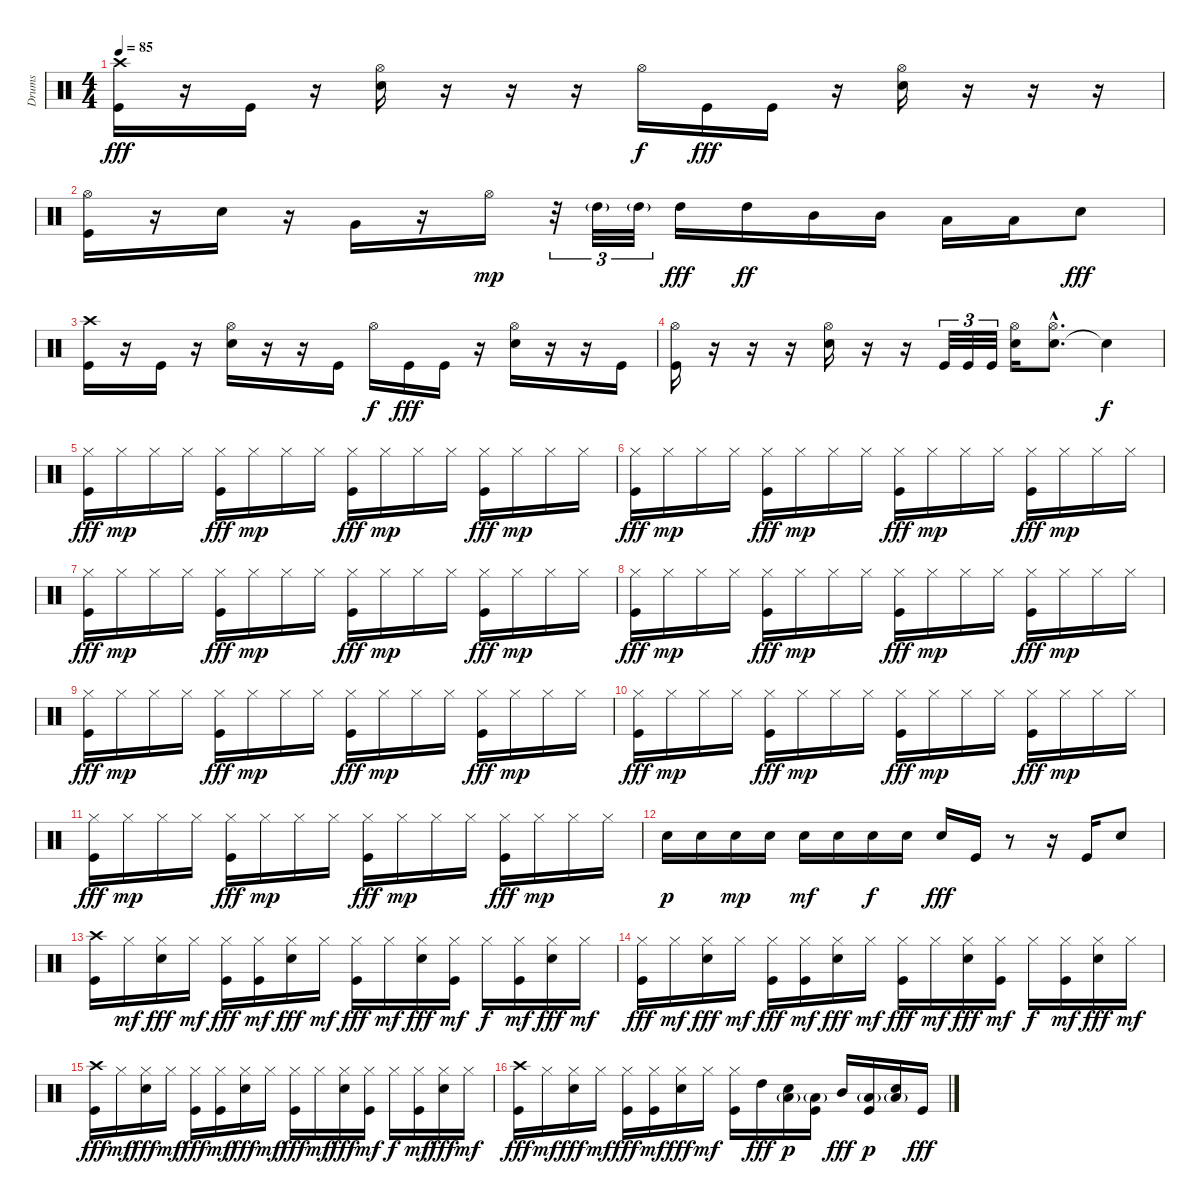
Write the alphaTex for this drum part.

\track ("Drums" "Drums") {instrument percussion}
\staff {score}
\articulation defaults
\ts (4 4)
\tempo 85
\clef neutral
\ks c
("Kick (hit)" "Crash high (hit)").16{dy fff} r.16 "Kick (hit)".16 r.16 ("Electric Snare (hit)" "Hi-Hat (open)").16 r.16 r.16 r.16 "Hi-Hat (open)".16{dy f} "Kick (hit)".16{dy fff} "Kick (hit)".16 r.16 ("Electric Snare (hit)" "Hi-Hat (open)").16 r.16 r.16 r.16 |
("Kick (hit)" "Hi-Hat (open)").16 r.16 "Electric Snare (hit)".16 r.16 "Very Low Tom (hit)".16 r.16 "Hi-Hat (open)".16{dy mp} r.32{tu (3 2)} "High Tom (hit)"{g}.32{tu (3 2)} "High Tom (hit)"{g}.32{tu (3 2)} "High Tom (hit)".16{dy fff} "High Tom (hit)".16{dy ff} "Mid Tom (hit)".16 "Mid Tom (hit)".16 "Low Tom (hit)".16 "Low Tom (hit)".16 "Electric Snare (hit)".8{dy fff} |
("Kick (hit)" "Crash high (hit)").16 r.16 "Kick (hit)".16 r.16 ("Electric Snare (hit)" "Hi-Hat (open)").16 r.16 r.16 "Kick (hit)".16 "Hi-Hat (open)".16{dy f} "Kick (hit)".16{dy fff} "Kick (hit)".16 r.16 ("Electric Snare (hit)" "Hi-Hat (open)").16 r.16 r.16 "Kick (hit)".16 |
("Kick (hit)" "Hi-Hat (open)").16 r.16 r.16 r.16 ("Electric Snare (hit)" "Hi-Hat (open)").16 r.16 r.16 "Kick (hit)".32{tu (3 2)} "Kick (hit)".32{tu (3 2)} "Kick (hit)".32{tu (3 2)} ("Electric Snare (hit)" "Hi-Hat (open)").16 ("Electric Snare (hit)"{hac} "Hi-Hat (open)"{hac}).8{d} "Snare (hit)"{t}.4{dy f} |
("Kick (hit)" "Hi-Hat (closed)").16{dy fff} "Hi-Hat (closed)".16{dy mp} "Hi-Hat (closed)".16 "Hi-Hat (closed)".16 ("Kick (hit)" "Hi-Hat (closed)").16{dy fff} "Hi-Hat (closed)".16{dy mp} "Hi-Hat (closed)".16 "Hi-Hat (closed)".16 ("Kick (hit)" "Hi-Hat (closed)").16{dy fff} "Hi-Hat (closed)".16{dy mp} "Hi-Hat (closed)".16 "Hi-Hat (closed)".16 ("Kick (hit)" "Hi-Hat (closed)").16{dy fff} "Hi-Hat (closed)".16{dy mp} "Hi-Hat (closed)".16 "Hi-Hat (closed)".16 |
("Kick (hit)" "Hi-Hat (closed)").16{dy fff} "Hi-Hat (closed)".16{dy mp} "Hi-Hat (closed)".16 "Hi-Hat (closed)".16 ("Kick (hit)" "Hi-Hat (closed)").16{dy fff} "Hi-Hat (closed)".16{dy mp} "Hi-Hat (closed)".16 "Hi-Hat (closed)".16 ("Kick (hit)" "Hi-Hat (closed)").16{dy fff} "Hi-Hat (closed)".16{dy mp} "Hi-Hat (closed)".16 "Hi-Hat (closed)".16 ("Kick (hit)" "Hi-Hat (closed)").16{dy fff} "Hi-Hat (closed)".16{dy mp} "Hi-Hat (closed)".16 "Hi-Hat (closed)".16 |
("Kick (hit)" "Hi-Hat (closed)").16{dy fff} "Hi-Hat (closed)".16{dy mp} "Hi-Hat (closed)".16 "Hi-Hat (closed)".16 ("Kick (hit)" "Hi-Hat (closed)").16{dy fff} "Hi-Hat (closed)".16{dy mp} "Hi-Hat (closed)".16 "Hi-Hat (closed)".16 ("Kick (hit)" "Hi-Hat (closed)").16{dy fff} "Hi-Hat (closed)".16{dy mp} "Hi-Hat (closed)".16 "Hi-Hat (closed)".16 ("Kick (hit)" "Hi-Hat (closed)").16{dy fff} "Hi-Hat (closed)".16{dy mp} "Hi-Hat (closed)".16 "Hi-Hat (closed)".16 |
("Kick (hit)" "Hi-Hat (closed)").16{dy fff} "Hi-Hat (closed)".16{dy mp} "Hi-Hat (closed)".16 "Hi-Hat (closed)".16 ("Kick (hit)" "Hi-Hat (closed)").16{dy fff} "Hi-Hat (closed)".16{dy mp} "Hi-Hat (closed)".16 "Hi-Hat (closed)".16 ("Kick (hit)" "Hi-Hat (closed)").16{dy fff} "Hi-Hat (closed)".16{dy mp} "Hi-Hat (closed)".16 "Hi-Hat (closed)".16 ("Kick (hit)" "Hi-Hat (closed)").16{dy fff} "Hi-Hat (closed)".16{dy mp} "Hi-Hat (closed)".16 "Hi-Hat (closed)".16 |
("Kick (hit)" "Hi-Hat (closed)").16{dy fff} "Hi-Hat (closed)".16{dy mp} "Hi-Hat (closed)".16 "Hi-Hat (closed)".16 ("Kick (hit)" "Hi-Hat (closed)").16{dy fff} "Hi-Hat (closed)".16{dy mp} "Hi-Hat (closed)".16 "Hi-Hat (closed)".16 ("Kick (hit)" "Hi-Hat (closed)").16{dy fff} "Hi-Hat (closed)".16{dy mp} "Hi-Hat (closed)".16 "Hi-Hat (closed)".16 ("Kick (hit)" "Hi-Hat (closed)").16{dy fff} "Hi-Hat (closed)".16{dy mp} "Hi-Hat (closed)".16 "Hi-Hat (closed)".16 |
("Kick (hit)" "Hi-Hat (closed)").16{dy fff} "Hi-Hat (closed)".16{dy mp} "Hi-Hat (closed)".16 "Hi-Hat (closed)".16 ("Kick (hit)" "Hi-Hat (closed)").16{dy fff} "Hi-Hat (closed)".16{dy mp} "Hi-Hat (closed)".16 "Hi-Hat (closed)".16 ("Kick (hit)" "Hi-Hat (closed)").16{dy fff} "Hi-Hat (closed)".16{dy mp} "Hi-Hat (closed)".16 "Hi-Hat (closed)".16 ("Kick (hit)" "Hi-Hat (closed)").16{dy fff} "Hi-Hat (closed)".16{dy mp} "Hi-Hat (closed)".16 "Hi-Hat (closed)".16 |
("Kick (hit)" "Hi-Hat (closed)").16{dy fff} "Hi-Hat (closed)".16{dy mp} "Hi-Hat (closed)".16 "Hi-Hat (closed)".16 ("Kick (hit)" "Hi-Hat (closed)").16{dy fff} "Hi-Hat (closed)".16{dy mp} "Hi-Hat (closed)".16 "Hi-Hat (closed)".16 ("Kick (hit)" "Hi-Hat (closed)").16{dy fff} "Hi-Hat (closed)".16{dy mp} "Hi-Hat (closed)".16 "Hi-Hat (closed)".16 ("Kick (hit)" "Hi-Hat (closed)").16{dy fff} "Hi-Hat (closed)".16{dy mp} "Hi-Hat (closed)".16 "Hi-Hat (closed)".16 |
"Electric Snare (hit)".16{dy p} "Electric Snare (hit)".16 "Electric Snare (hit)".16{dy mp} "Electric Snare (hit)".16 "Electric Snare (hit)".16{dy mf} "Electric Snare (hit)".16 "Electric Snare (hit)".16{dy f} "Electric Snare (hit)".16 "Electric Snare (hit)".16{dy fff} "Kick (hit)".16 r.8 r.16 "Kick (hit)".16 "Electric Snare (hit)".8 |
("Kick (hit)" "Crash high (hit)").16 "Hi-Hat (closed)".16{dy mf} ("Electric Snare (hit)" "Hi-Hat (closed)").16{dy fff} "Hi-Hat (closed)".16{dy mf} ("Kick (hit)" "Hi-Hat (closed)").16{dy fff} ("Kick (hit)" "Hi-Hat (closed)").16{dy mf} ("Electric Snare (hit)" "Hi-Hat (closed)").16{dy fff} "Hi-Hat (closed)".16{dy mf} ("Kick (hit)" "Hi-Hat (closed)").16{dy fff} "Hi-Hat (closed)".16{dy mf} ("Electric Snare (hit)" "Hi-Hat (closed)").16{dy fff} ("Kick (hit)" "Hi-Hat (closed)").16{dy mf} "Hi-Hat (closed)".16{dy f} ("Kick (hit)" "Hi-Hat (closed)").16{dy mf} ("Electric Snare (hit)" "Hi-Hat (closed)").16{dy fff} "Hi-Hat (closed)".16{dy mf} |
("Kick (hit)" "Hi-Hat (closed)").16{dy fff} "Hi-Hat (closed)".16{dy mf} ("Electric Snare (hit)" "Hi-Hat (closed)").16{dy fff} "Hi-Hat (closed)".16{dy mf} ("Kick (hit)" "Hi-Hat (closed)").16{dy fff} ("Kick (hit)" "Hi-Hat (closed)").16{dy mf} ("Electric Snare (hit)" "Hi-Hat (closed)").16{dy fff} "Hi-Hat (closed)".16{dy mf} ("Kick (hit)" "Hi-Hat (closed)").16{dy fff} "Hi-Hat (closed)".16{dy mf} ("Electric Snare (hit)" "Hi-Hat (closed)").16{dy fff} ("Kick (hit)" "Hi-Hat (closed)").16{dy mf} "Hi-Hat (closed)".16{dy f} ("Kick (hit)" "Hi-Hat (closed)").16{dy mf} ("Electric Snare (hit)" "Hi-Hat (closed)").16{dy fff} "Hi-Hat (closed)".16{dy mf} |
("Kick (hit)" "Crash high (hit)").16{dy fff} "Hi-Hat (closed)".16{dy mf} ("Electric Snare (hit)" "Hi-Hat (closed)").16{dy fff} "Hi-Hat (closed)".16{dy mf} ("Kick (hit)" "Hi-Hat (closed)").16{dy fff} ("Kick (hit)" "Hi-Hat (closed)").16{dy mf} ("Electric Snare (hit)" "Hi-Hat (closed)").16{dy fff} "Hi-Hat (closed)".16{dy mf} ("Kick (hit)" "Hi-Hat (closed)").16{dy fff} "Hi-Hat (closed)".16{dy mf} ("Electric Snare (hit)" "Hi-Hat (closed)").16{dy fff} ("Kick (hit)" "Hi-Hat (closed)").16{dy mf} "Hi-Hat (closed)".16{dy f} ("Kick (hit)" "Hi-Hat (closed)").16{dy mf} ("Electric Snare (hit)" "Hi-Hat (closed)").16{dy fff} "Hi-Hat (closed)".16{dy mf} |
("Kick (hit)" "Crash high (hit)").16{dy fff} "Hi-Hat (closed)".16{dy mf} ("Electric Snare (hit)" "Hi-Hat (closed)").16{dy fff} "Hi-Hat (closed)".16{dy mf} ("Kick (hit)" "Hi-Hat (closed)").16{dy fff} ("Kick (hit)" "Hi-Hat (closed)").16{dy mf} ("Electric Snare (hit)" "Hi-Hat (closed)").16{dy fff} "Hi-Hat (closed)".16{dy mf} ("Kick (hit)" "Hi-Hat (closed)").16 "High Tom (hit)".16{dy fff} ("Electric Snare (hit)" "Low Floor Tom (hit)"{g}).16{dy p} ("Kick (hit)" "Low Floor Tom (hit)"{g}).16 "Mid Tom (hit)".16{dy fff} ("Kick (hit)" "Low Floor Tom (hit)"{g}).16{dy p} ("Electric Snare (hit)" "Low Floor Tom (hit)"{g}).16 "Kick (hit)".16{dy fff}
